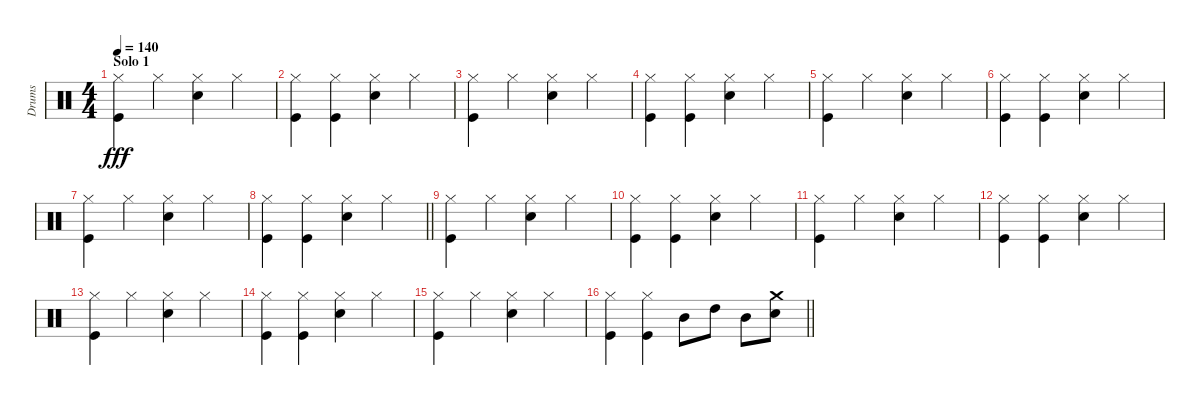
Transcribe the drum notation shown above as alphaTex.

\track ("Drums" "Drums") {instrument percussion}
\staff {score}
\articulation defaults
\ts (4 4)
\section ("" "Solo 1")
\tempo 140
\clef neutral
\ks c
("Hi-Hat (closed)" "Kick (hit)").4{dy fff} "Hi-Hat (closed)".4 ("Hi-Hat (closed)" "Snare (hit) 2").4 "Hi-Hat (closed)".4 |
("Hi-Hat (closed)" "Kick (hit)").4 ("Hi-Hat (closed)" "Kick (hit)").4 ("Hi-Hat (closed)" "Snare (hit) 2").4 "Hi-Hat (closed)".4 |
("Hi-Hat (closed)" "Kick (hit)").4 "Hi-Hat (closed)".4 ("Hi-Hat (closed)" "Snare (hit) 2").4 "Hi-Hat (closed)".4 |
("Hi-Hat (closed)" "Kick (hit)").4 ("Hi-Hat (closed)" "Kick (hit)").4 ("Hi-Hat (closed)" "Snare (hit) 2").4 "Hi-Hat (closed)".4 |
("Hi-Hat (closed)" "Kick (hit)").4 "Hi-Hat (closed)".4 ("Hi-Hat (closed)" "Snare (hit) 2").4 "Hi-Hat (closed)".4 |
("Hi-Hat (closed)" "Kick (hit)").4 ("Hi-Hat (closed)" "Kick (hit)").4 ("Hi-Hat (closed)" "Snare (hit) 2").4 "Hi-Hat (closed)".4 |
("Hi-Hat (closed)" "Kick (hit)").4 "Hi-Hat (closed)".4 ("Hi-Hat (closed)" "Snare (hit) 2").4 "Hi-Hat (closed)".4 |
\barLineRight lightlight
("Hi-Hat (closed)" "Kick (hit)").4 ("Hi-Hat (closed)" "Kick (hit)").4 ("Hi-Hat (closed)" "Snare (hit) 2").4 "Hi-Hat (closed)".4 |
("Hi-Hat (closed)" "Kick (hit)").4 "Hi-Hat (closed)".4 ("Hi-Hat (closed)" "Snare (hit) 2").4 "Hi-Hat (closed)".4 |
("Hi-Hat (closed)" "Kick (hit)").4 ("Hi-Hat (closed)" "Kick (hit)").4 ("Hi-Hat (closed)" "Snare (hit) 2").4 "Hi-Hat (closed)".4 |
("Hi-Hat (closed)" "Kick (hit)").4 "Hi-Hat (closed)".4 ("Hi-Hat (closed)" "Snare (hit) 2").4 "Hi-Hat (closed)".4 |
("Hi-Hat (closed)" "Kick (hit)").4 ("Hi-Hat (closed)" "Kick (hit)").4 ("Hi-Hat (closed)" "Snare (hit) 2").4 "Hi-Hat (closed)".4 |
("Hi-Hat (closed)" "Kick (hit)").4 "Hi-Hat (closed)".4 ("Hi-Hat (closed)" "Snare (hit) 2").4 "Hi-Hat (closed)".4 |
("Hi-Hat (closed)" "Kick (hit)").4 ("Hi-Hat (closed)" "Kick (hit)").4 ("Hi-Hat (closed)" "Snare (hit) 2").4 "Hi-Hat (closed)".4 |
("Hi-Hat (closed)" "Kick (hit)").4 "Hi-Hat (closed)".4 ("Hi-Hat (closed)" "Snare (hit) 2").4 "Hi-Hat (closed)".4 |
\barLineRight lightlight
("Hi-Hat (closed)" "Kick (hit)").4 ("Hi-Hat (closed)" "Kick (hit)").4 "Mid Tom (hit)".8 "High Tom (hit)".8 "Mid Tom (hit)".8 ("Crash medium (hit)" "Snare (hit) 2").8
